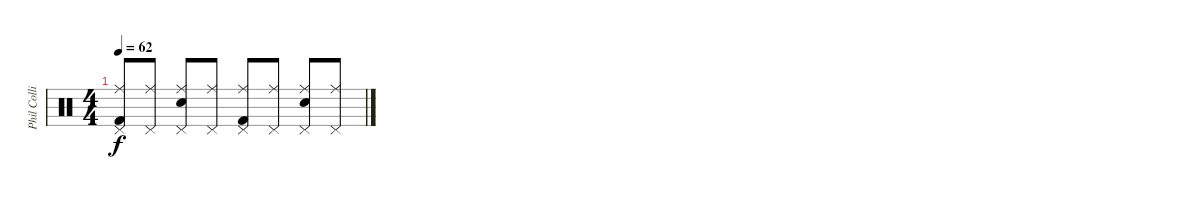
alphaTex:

\track ("Phil Collins (drums)" "Phil Colli") {instrument percussion}
\staff {score}
\articulation defaults
\ts (4 4)
\tempo 62
\clef neutral
\ks c
("Ride (middle)" "Pedal Hi-Hat (hit)" "Kick (hit) 2").8{dy f} ("Ride (middle)" "Pedal Hi-Hat (hit)").8 ("Ride (middle)" "Pedal Hi-Hat (hit)" "Electric Snare (hit)").8 ("Ride (middle)" "Pedal Hi-Hat (hit)").8 ("Ride (middle)" "Pedal Hi-Hat (hit)" "Kick (hit) 2").8 ("Ride (middle)" "Pedal Hi-Hat (hit)").8 ("Ride (middle)" "Pedal Hi-Hat (hit)" "Electric Snare (hit)").8 ("Ride (middle)" "Pedal Hi-Hat (hit)").8
